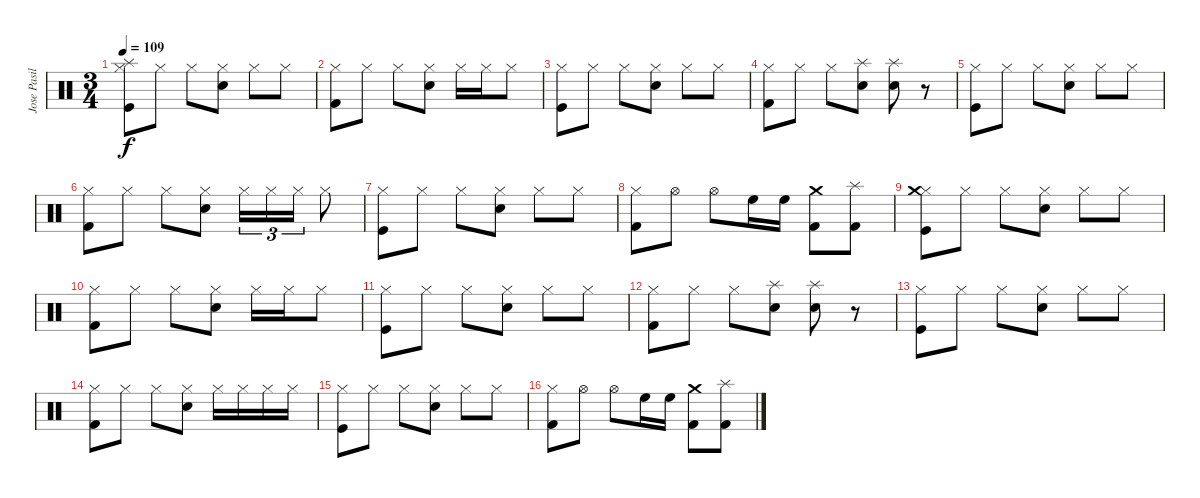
\track ("Jose Pasillas" "Jose Pasil") {instrument percussion}
\staff {score}
\articulation defaults
\ts (3 4)
\tempo 109
\clef neutral
\ks c
("Hi-Hat (closed)" "Splash (hit)" "Kick (hit)").8{dy f} "Hi-Hat (closed)".8 "Hi-Hat (closed)".8 ("Hi-Hat (closed)" "Electric Snare (hit)").8 "Hi-Hat (closed)".8 "Hi-Hat (closed)".8 |
("Hi-Hat (closed)" "Kick (hit) 2").8 "Hi-Hat (closed)".8 "Hi-Hat (closed)".8 ("Hi-Hat (closed)" "Electric Snare (hit)").8 "Hi-Hat (closed)".16 "Hi-Hat (closed)".16 "Hi-Hat (closed)".8 |
("Hi-Hat (closed)" "Kick (hit)").8 "Hi-Hat (closed)".8 "Hi-Hat (closed)".8 ("Hi-Hat (closed)" "Electric Snare (hit)").8 "Hi-Hat (closed)".8 "Hi-Hat (closed)".8 |
("Hi-Hat (closed)" "Kick (hit) 2").8 "Hi-Hat (closed)".8 "Hi-Hat (closed)".8 ("Splash (hit)" "Electric Snare (hit)").8 ("Splash (hit)" "Electric Snare (hit)").8 r.8 |
("Hi-Hat (closed)" "Kick (hit)").8 "Hi-Hat (closed)".8 "Hi-Hat (closed)".8 ("Hi-Hat (closed)" "Electric Snare (hit)").8 "Hi-Hat (closed)".8 "Hi-Hat (closed)".8 |
("Hi-Hat (closed)" "Kick (hit) 2").8 "Hi-Hat (closed)".8 "Hi-Hat (closed)".8 ("Hi-Hat (closed)" "Electric Snare (hit)").8 "Hi-Hat (closed)".16{tu (3 2)} "Hi-Hat (closed)".16{tu (3 2)} "Hi-Hat (closed)".16{tu (3 2)} "Hi-Hat (closed)".8 |
("Hi-Hat (closed)" "Kick (hit)").8 "Hi-Hat (closed)".8 "Hi-Hat (closed)".8 ("Hi-Hat (closed)" "Electric Snare (hit)").8 "Hi-Hat (closed)".8 "Hi-Hat (closed)".8 |
("Hi-Hat (closed)" "Kick (hit) 2").8 "Hi-Hat (open)".8 "Hi-Hat (open)".8 "High Floor Tom (hit)".16 "High Floor Tom (hit)".16 ("Crash medium (hit)" "Kick (hit) 2").8 ("Splash (hit)" "Kick (hit) 2").8 |
("Hi-Hat (closed)" "Crash medium (hit)" "Kick (hit)").8 "Hi-Hat (closed)".8 "Hi-Hat (closed)".8 ("Hi-Hat (closed)" "Electric Snare (hit)").8 "Hi-Hat (closed)".8 "Hi-Hat (closed)".8 |
("Hi-Hat (closed)" "Kick (hit) 2").8 "Hi-Hat (closed)".8 "Hi-Hat (closed)".8 ("Hi-Hat (closed)" "Electric Snare (hit)").8 "Hi-Hat (closed)".16 "Hi-Hat (closed)".16 "Hi-Hat (closed)".8 |
("Hi-Hat (closed)" "Kick (hit)").8 "Hi-Hat (closed)".8 "Hi-Hat (closed)".8 ("Hi-Hat (closed)" "Electric Snare (hit)").8 "Hi-Hat (closed)".8 "Hi-Hat (closed)".8 |
("Hi-Hat (closed)" "Kick (hit) 2").8 "Hi-Hat (closed)".8 "Hi-Hat (closed)".8 ("Splash (hit)" "Electric Snare (hit)").8 ("Splash (hit)" "Electric Snare (hit)").8 r.8 |
("Hi-Hat (closed)" "Kick (hit)").8 "Hi-Hat (closed)".8 "Hi-Hat (closed)".8 ("Hi-Hat (closed)" "Electric Snare (hit)").8 "Hi-Hat (closed)".8 "Hi-Hat (closed)".8 |
("Hi-Hat (closed)" "Kick (hit) 2").8 "Hi-Hat (closed)".8 "Hi-Hat (closed)".8 ("Hi-Hat (closed)" "Electric Snare (hit)").8 "Hi-Hat (closed)".16 "Hi-Hat (closed)".16 "Hi-Hat (closed)".16 "Hi-Hat (closed)".16 |
("Hi-Hat (closed)" "Kick (hit)").8 "Hi-Hat (closed)".8 "Hi-Hat (closed)".8 ("Hi-Hat (closed)" "Electric Snare (hit)").8 "Hi-Hat (closed)".8 "Hi-Hat (closed)".8 |
("Hi-Hat (closed)" "Kick (hit) 2").8 "Hi-Hat (open)".8 "Hi-Hat (open)".8 "High Floor Tom (hit)".16 "High Floor Tom (hit)".16 ("Crash medium (hit)" "Kick (hit) 2").8 ("Splash (hit)" "Kick (hit) 2").8
